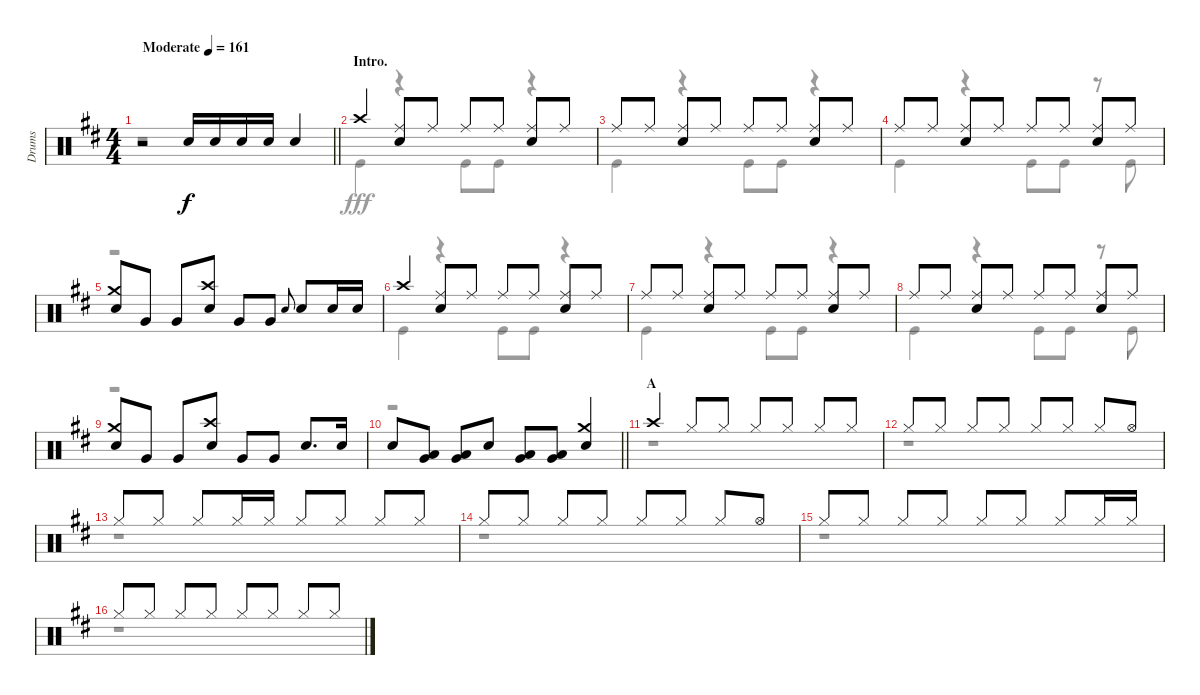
\track ("Drums" "Drums") {instrument percussion}
\staff {score}
\articulation defaults
\voice
\ts (4 4)
\tempo (161 "Moderate")
\clef neutral
\barLineRight lightlight
\ks d
r.2{dy f} "Snare (hit) 2".16 "Snare (hit) 2".16 "Snare (hit) 2".16 "Snare (hit) 2".16 "Snare (hit) 2".4 |
\section ("" "Intro.")
"Crash high (hit)".4 ("Ride (middle)" "Snare (hit) 2").8 "Ride (middle)".8 "Ride (middle)".8 "Ride (middle)".8 ("Ride (middle)" "Snare (hit) 2").8 "Ride (middle)".8 |
"Ride (middle)".8 "Ride (middle)".8 ("Ride (middle)" "Snare (hit) 2").8 "Ride (middle)".8 "Ride (middle)".8 "Ride (middle)".8 ("Ride (middle)" "Snare (hit) 2").8 "Ride (middle)".8 |
"Ride (middle)".8 "Ride (middle)".8 ("Ride (middle)" "Snare (hit) 2").8 "Ride (middle)".8 "Ride (middle)".8 "Ride (middle)".8 ("Ride (middle)" "Snare (hit) 2").8 "Ride (middle)".8 |
("Crash medium (hit)" "Snare (hit) 2").8 "Very Low Tom (hit)".8 "Very Low Tom (hit)".8 ("Crash high (hit)" "Snare (hit) 2").8 "Very Low Tom (hit)".8 "Very Low Tom (hit)".8 "Snare (hit) 2".8{gr onbeat} "Snare (hit) 2".8 "Snare (hit) 2".16 "Snare (hit) 2".16 |
"Crash high (hit)".4 ("Ride (middle)" "Snare (hit) 2").8 "Ride (middle)".8 "Ride (middle)".8 "Ride (middle)".8 ("Ride (middle)" "Snare (hit) 2").8 "Ride (middle)".8 |
"Ride (middle)".8 "Ride (middle)".8 ("Ride (middle)" "Snare (hit) 2").8 "Ride (middle)".8 "Ride (middle)".8 "Ride (middle)".8 ("Ride (middle)" "Snare (hit) 2").8 "Ride (middle)".8 |
"Ride (middle)".8 "Ride (middle)".8 ("Ride (middle)" "Snare (hit) 2").8 "Ride (middle)".8 "Ride (middle)".8 "Ride (middle)".8 ("Ride (middle)" "Snare (hit) 2").8 "Ride (middle)".8 |
("Crash medium (hit)" "Snare (hit) 2").8 "Very Low Tom (hit)".8 "Very Low Tom (hit)".8 ("Crash high (hit)" "Snare (hit) 2").8 "Very Low Tom (hit)".8 "Very Low Tom (hit)".8 "Snare (hit) 2".8{d} "Snare (hit) 2".16 |
\barLineRight lightlight "Snare (hit) 2".8
("Low Tom (hit)" "Very Low Tom (hit)").8 ("Low Tom (hit)" "Very Low Tom (hit)").8 "Snare (hit) 2".8 ("Low Tom (hit)" "Very Low Tom (hit)").8 ("Low Tom (hit)" "Very Low Tom (hit)").8 ("Crash medium (hit)" "Snare (hit) 2").4 |
\section ("" "A")
"Crash high (hit)".4 "Hi-Hat (closed)".8 "Hi-Hat (closed)".8 "Hi-Hat (closed)".8 "Hi-Hat (closed)".8 "Hi-Hat (closed)".8 "Hi-Hat (closed)".8 |
"Hi-Hat (closed)".8 "Hi-Hat (closed)".8 "Hi-Hat (closed)".8 "Hi-Hat (closed)".8 "Hi-Hat (closed)".8 "Hi-Hat (closed)".8 "Hi-Hat (closed)".8 "Hi-Hat (open)".8 |
"Hi-Hat (closed)".8 "Hi-Hat (closed)".8 "Hi-Hat (closed)".8 "Hi-Hat (closed)".16 "Hi-Hat (closed)".16 "Hi-Hat (closed)".8 "Hi-Hat (closed)".8 "Hi-Hat (closed)".8 "Hi-Hat (closed)".8 |
"Hi-Hat (closed)".8 "Hi-Hat (closed)".8 "Hi-Hat (closed)".8 "Hi-Hat (closed)".8 "Hi-Hat (closed)".8 "Hi-Hat (closed)".8 "Hi-Hat (closed)".8 "Hi-Hat (open)".8 |
"Hi-Hat (closed)".8 "Hi-Hat (closed)".8 "Hi-Hat (closed)".8 "Hi-Hat (closed)".8 "Hi-Hat (closed)".8 "Hi-Hat (closed)".8 "Hi-Hat (closed)".8 "Hi-Hat (closed)".16 "Hi-Hat (closed)".16 |
"Hi-Hat (closed)".8 "Hi-Hat (closed)".8 "Hi-Hat (closed)".8 "Hi-Hat (closed)".8 "Hi-Hat (closed)".8 "Hi-Hat (closed)".8 "Hi-Hat (closed)".8 "Hi-Hat (closed)".8
\voice
\clef neutral
\ottava regular
\simile none
\barLineRight lightlight
\ks d
r.1{dy fff} |
"Kick (hit)".4 r.4 "Kick (hit)".8 "Kick (hit)".8 r.4 |
"Kick (hit)".4 r.4 "Kick (hit)".8 "Kick (hit)".8 r.4 |
"Kick (hit)".4 r.4 "Kick (hit)".8 "Kick (hit)".8 r.8 "Kick (hit)".8 |
r.1 |
"Kick (hit)".4 r.4 "Kick (hit)".8 "Kick (hit)".8 r.4 |
"Kick (hit)".4 r.4 "Kick (hit)".8 "Kick (hit)".8 r.4 |
"Kick (hit)".4 r.4 "Kick (hit)".8 "Kick (hit)".8 r.8 "Kick (hit)".8 |
r.1 |
\barLineRight lightlight
r.1 |
r.1 |
r.1 |
r.1 |
r.1 |
r.1 |
r.1
